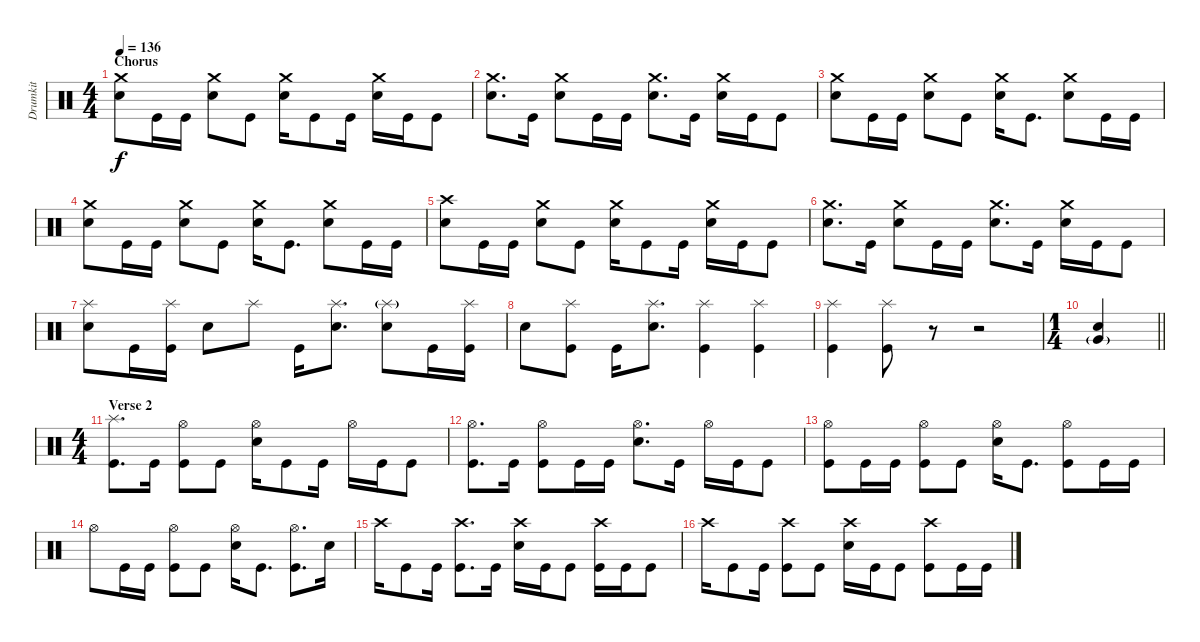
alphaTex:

\track ("Drumkit" "Drumkit") {instrument percussion}
\staff {score}
\articulation defaults
\ts (4 4)
\section ("" "Chorus")
\tempo 136
\clef neutral
\ks c
("Crash medium (hit)" "Snare (hit) 2").8{dy f} "Kick (hit)".16 "Kick (hit)".16 ("Crash medium (hit)" "Snare (hit) 2").8 "Kick (hit)".8 ("Crash medium (hit)" "Snare (hit) 2").16 "Kick (hit)".8 "Kick (hit)".16 ("Crash medium (hit)" "Snare (hit) 2").16 "Kick (hit)".16 "Kick (hit)".8 |
("Snare (hit) 2" "Crash medium (hit)").8{d} "Kick (hit)".16 ("Snare (hit) 2" "Crash medium (hit)").8 "Kick (hit)".16 "Kick (hit)".16 ("Snare (hit) 2" "Crash medium (hit)").8{d} "Kick (hit)".16 ("Snare (hit) 2" "Crash medium (hit)").16 "Kick (hit)".16 "Kick (hit)".8 |
("Crash medium (hit)" "Snare (hit) 2").8 "Kick (hit)".16 "Kick (hit)".16 ("Crash medium (hit)" "Snare (hit) 2").8 "Kick (hit)".8 ("Crash medium (hit)" "Snare (hit) 2").16 "Kick (hit)".8{d} ("Crash medium (hit)" "Snare (hit) 2").8 "Kick (hit)".16 "Kick (hit)".16 |
("Crash medium (hit)" "Snare (hit) 2").8 "Kick (hit)".16 "Kick (hit)".16 ("Crash medium (hit)" "Snare (hit) 2").8 "Kick (hit)".8 ("Crash medium (hit)" "Snare (hit) 2").16 "Kick (hit)".8{d} ("Crash medium (hit)" "Snare (hit) 2").8 "Kick (hit)".16 "Kick (hit)".16 |
("Snare (hit) 2" "Crash high (hit)").8 "Kick (hit)".16 "Kick (hit)".16 ("Crash medium (hit)" "Snare (hit) 2").8 "Kick (hit)".8 ("Crash medium (hit)" "Snare (hit) 2").16 "Kick (hit)".8 "Kick (hit)".16 ("Crash medium (hit)" "Snare (hit) 2").16 "Kick (hit)".16 "Kick (hit)".8 |
("Snare (hit) 2" "Crash medium (hit)").8{d} "Kick (hit)".16 ("Snare (hit) 2" "Crash medium (hit)").8 "Kick (hit)".16 "Kick (hit)".16 ("Snare (hit) 2" "Crash medium (hit)").8{d} "Kick (hit)".16 ("Snare (hit) 2" "Crash medium (hit)").16 "Kick (hit)".16 "Kick (hit)".8 |
("Snare (hit) 2" "Splash (hit)").8 "Kick (hit)".16 ("Kick (hit)" "Splash (hit)").16 "Snare (hit) 2".8 "Splash (hit)".8 "Kick (hit)".16 ("Snare (hit) 2" "Splash (hit)").8{d} ("Snare (hit) 2" "Splash (hit)"{g}).8 "Kick (hit)".16 ("Kick (hit)" "Splash (hit)").16 |
"Snare (hit) 2".8 ("Splash (hit)" "Kick (hit)").8 "Kick (hit)".16 ("Snare (hit) 2" "Splash (hit)").8{d} ("Splash (hit)" "Kick (hit)").4 ("Splash (hit)" "Kick (hit)").4 |
("Kick (hit)" "Splash (hit)").4 ("Kick (hit)" "Splash (hit)").8 r.8 r.2 |
\ts (1 4)
\barLineRight lightlight
("Snare (hit) 2" "Very Low Tom (hit)"{g}).4 |
\ts (4 4)
\section ("" "Verse 2")
("Kick (hit)" "Splash (hit)").8{d} "Kick (hit)".16 ("Hi-Hat (open)" "Kick (hit)").8 "Kick (hit)".8 ("Hi-Hat (open)" "Snare (hit) 2").16 "Kick (hit)".8 "Kick (hit)".16 "Hi-Hat (open)".16 "Kick (hit)".16 "Kick (hit)".8 |
("Hi-Hat (open)" "Kick (hit)").8{d} "Kick (hit)".16 ("Hi-Hat (open)" "Kick (hit)").8 "Kick (hit)".16 "Kick (hit)".16 ("Hi-Hat (open)" "Snare (hit) 2").8{d} "Kick (hit)".16 "Hi-Hat (open)".16 "Kick (hit)".16 "Kick (hit)".8 |
("Hi-Hat (open)" "Kick (hit)").8 "Kick (hit)".16 "Kick (hit)".16 ("Hi-Hat (open)" "Kick (hit)").8 "Kick (hit)".8 ("Hi-Hat (open)" "Snare (hit) 2").16 "Kick (hit)".8{d} ("Hi-Hat (open)" "Kick (hit)").8 "Kick (hit)".16 "Kick (hit)".16 |
"Hi-Hat (open)".8 "Kick (hit)".16 "Kick (hit)".16 ("Hi-Hat (open)" "Kick (hit)").8 "Kick (hit)".8 ("Hi-Hat (open)" "Snare (hit) 2").16 "Kick (hit)".8{d} ("Hi-Hat (open)" "Kick (hit)").8{d} "Snare (hit) 2".16 |
"Crash high (hit)".16 "Kick (hit)".8 "Kick (hit)".16 ("Kick (hit)" "Crash high (hit)").8{d} "Kick (hit)".16 ("Crash high (hit)" "Snare (hit) 2").16 "Kick (hit)".16 "Kick (hit)".8 ("Crash high (hit)" "Kick (hit)").16 "Kick (hit)".16 "Kick (hit)".8 |
"Crash high (hit)".16 "Kick (hit)".8 "Kick (hit)".16 ("Crash high (hit)" "Kick (hit)").8 "Kick (hit)".8 ("Crash high (hit)" "Snare (hit) 2").16 "Kick (hit)".16 "Kick (hit)".8 ("Crash high (hit)" "Kick (hit)").8 "Kick (hit)".16 "Kick (hit)".16
